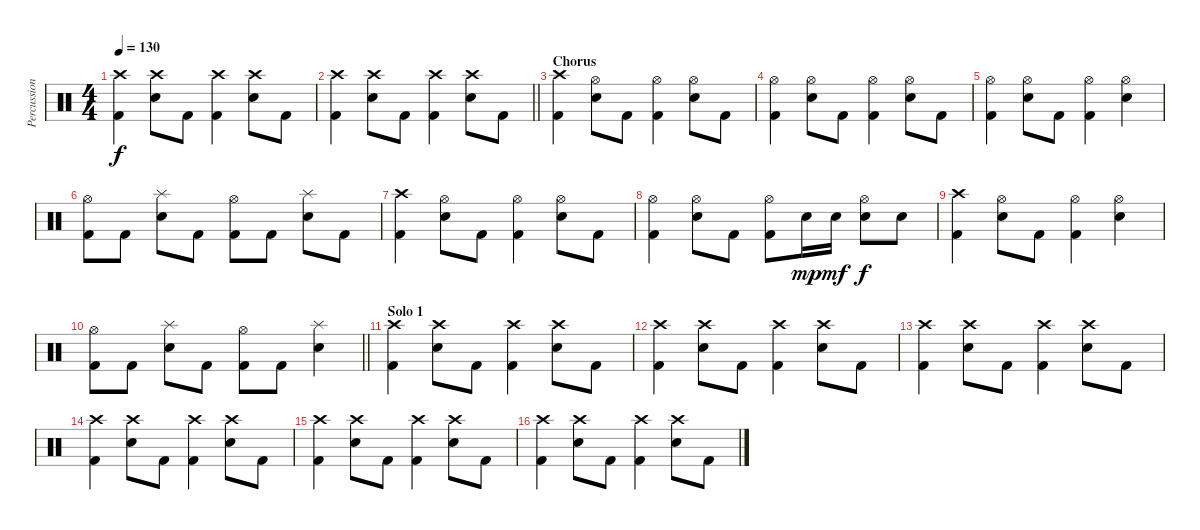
\track ("Percussion" "Percussion") {instrument percussion}
\staff {score}
\articulation defaults
\ts (4 4)
\tempo 130
\clef neutral
\ks c
("Crash high (hit)" "Kick (hit) 2").4{dy f} ("Crash high (hit)" "Electric Snare (hit)").8 "Kick (hit) 2".8 ("Crash high (hit)" "Kick (hit) 2").4 ("Crash high (hit)" "Electric Snare (hit)").8 "Kick (hit) 2".8 |
\barLineRight lightlight
("Crash high (hit)" "Kick (hit) 2").4 ("Crash high (hit)" "Electric Snare (hit)").8 "Kick (hit) 2".8 ("Crash high (hit)" "Kick (hit) 2").4 ("Crash high (hit)" "Electric Snare (hit)").8 "Kick (hit) 2".8 |
\section ("" "Chorus")
("Crash high (hit)" "Kick (hit) 2").4 ("Hi-Hat (open)" "Electric Snare (hit)").8 "Kick (hit) 2".8 ("Hi-Hat (open)" "Kick (hit) 2").4 ("Hi-Hat (open)" "Electric Snare (hit)").8 "Kick (hit) 2".8 |
("Hi-Hat (open)" "Kick (hit) 2").4 ("Hi-Hat (open)" "Electric Snare (hit)").8 "Kick (hit) 2".8 ("Hi-Hat (open)" "Kick (hit) 2").4 ("Hi-Hat (open)" "Electric Snare (hit)").8 "Kick (hit) 2".8 |
("Hi-Hat (open)" "Kick (hit) 2").4 ("Hi-Hat (open)" "Electric Snare (hit)").8 "Kick (hit) 2".8 ("Hi-Hat (open)" "Kick (hit) 2").4 ("Hi-Hat (open)" "Electric Snare (hit)").4 |
("Hi-Hat (open)" "Kick (hit) 2").8 "Kick (hit) 2".8 ("Splash (hit)" "Electric Snare (hit)").8 "Kick (hit) 2".8 ("Hi-Hat (open)" "Kick (hit) 2").8 "Kick (hit) 2".8 ("Splash (hit)" "Electric Snare (hit)").8 "Kick (hit) 2".8 |
("Crash high (hit)" "Kick (hit) 2").4 ("Hi-Hat (open)" "Electric Snare (hit)").8 "Kick (hit) 2".8 ("Hi-Hat (open)" "Kick (hit) 2").4 ("Hi-Hat (open)" "Electric Snare (hit)").8 "Kick (hit) 2".8 |
("Hi-Hat (open)" "Kick (hit) 2").4 ("Hi-Hat (open)" "Electric Snare (hit)").8 "Kick (hit) 2".8 ("Hi-Hat (open)" "Kick (hit) 2").8 "Electric Snare (hit)".16{dy mp} "Electric Snare (hit)".16{dy mf} ("Hi-Hat (open)" "Electric Snare (hit)").8{dy f} "Electric Snare (hit)".8 |
("Crash high (hit)" "Kick (hit) 2").4 ("Hi-Hat (open)" "Electric Snare (hit)").8 "Kick (hit) 2".8 ("Hi-Hat (open)" "Kick (hit) 2").4 ("Hi-Hat (open)" "Electric Snare (hit)").4 |
\barLineRight lightlight
("Hi-Hat (open)" "Kick (hit) 2").8 "Kick (hit) 2".8 ("Splash (hit)" "Electric Snare (hit)").8 "Kick (hit) 2".8 ("Hi-Hat (open)" "Kick (hit) 2").8 "Kick (hit) 2".8 ("Splash (hit)" "Electric Snare (hit)").4 |
\section ("" "Solo 1")
("Crash high (hit)" "Kick (hit) 2").4 ("Crash high (hit)" "Electric Snare (hit)").8 "Kick (hit) 2".8 ("Crash high (hit)" "Kick (hit) 2").4 ("Crash high (hit)" "Electric Snare (hit)").8 "Kick (hit) 2".8 |
("Crash high (hit)" "Kick (hit) 2").4 ("Crash high (hit)" "Electric Snare (hit)").8 "Kick (hit) 2".8 ("Crash high (hit)" "Kick (hit) 2").4 ("Crash high (hit)" "Electric Snare (hit)").8 "Kick (hit) 2".8 |
("Crash high (hit)" "Kick (hit) 2").4 ("Crash high (hit)" "Electric Snare (hit)").8 "Kick (hit) 2".8 ("Crash high (hit)" "Kick (hit) 2").4 ("Crash high (hit)" "Electric Snare (hit)").8 "Kick (hit) 2".8 |
("Crash high (hit)" "Kick (hit) 2").4 ("Crash high (hit)" "Electric Snare (hit)").8 "Kick (hit) 2".8 ("Crash high (hit)" "Kick (hit) 2").4 ("Crash high (hit)" "Electric Snare (hit)").8 "Kick (hit) 2".8 |
("Crash high (hit)" "Kick (hit) 2").4 ("Crash high (hit)" "Electric Snare (hit)").8 "Kick (hit) 2".8 ("Crash high (hit)" "Kick (hit) 2").4 ("Crash high (hit)" "Electric Snare (hit)").8 "Kick (hit) 2".8 |
("Crash high (hit)" "Kick (hit) 2").4 ("Crash high (hit)" "Electric Snare (hit)").8 "Kick (hit) 2".8 ("Crash high (hit)" "Kick (hit) 2").4 ("Crash high (hit)" "Electric Snare (hit)").8 "Kick (hit) 2".8
